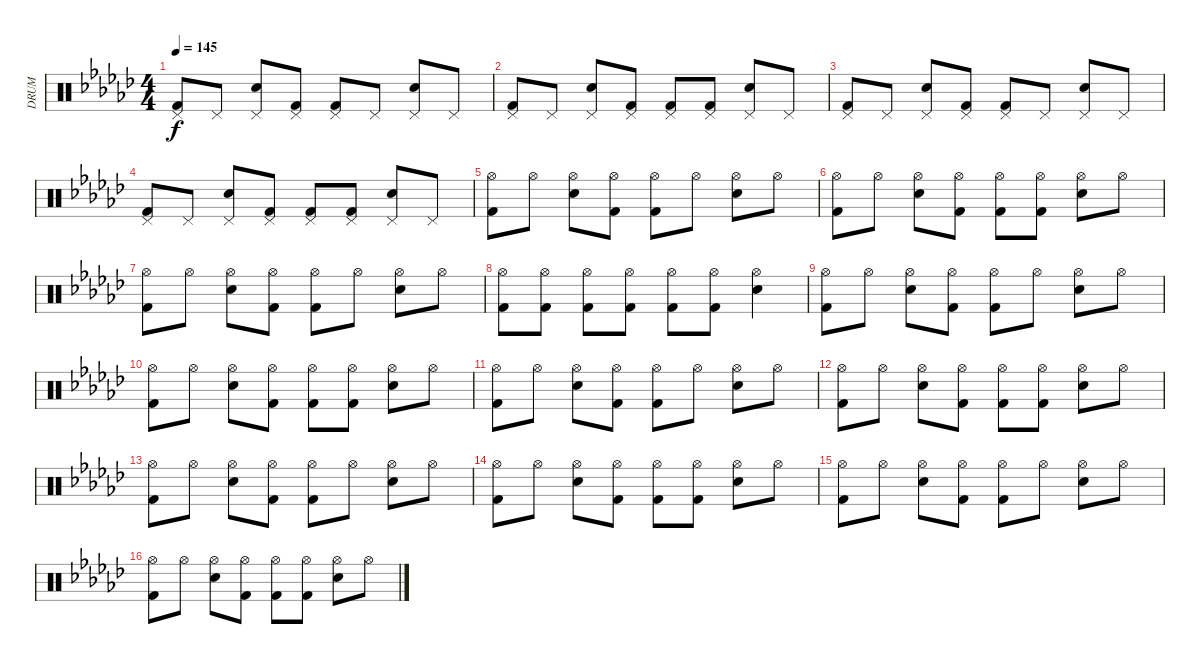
\track ("DRUM" "DRUM") {instrument percussion}
\staff {score}
\articulation defaults
\ts (4 4)
\tempo 145
\clef neutral
\ks ebminor
("Pedal Hi-Hat (hit)" "Kick (hit) 2").8{dy f} "Pedal Hi-Hat (hit)".8 ("Pedal Hi-Hat (hit)" "Electric Snare (hit)").8 ("Pedal Hi-Hat (hit)" "Kick (hit) 2").8 ("Pedal Hi-Hat (hit)" "Kick (hit) 2").8 "Pedal Hi-Hat (hit)".8 ("Pedal Hi-Hat (hit)" "Electric Snare (hit)").8 "Pedal Hi-Hat (hit)".8 |
("Pedal Hi-Hat (hit)" "Kick (hit) 2").8 "Pedal Hi-Hat (hit)".8 ("Pedal Hi-Hat (hit)" "Electric Snare (hit)").8 ("Pedal Hi-Hat (hit)" "Kick (hit) 2").8 ("Pedal Hi-Hat (hit)" "Kick (hit) 2").8 ("Pedal Hi-Hat (hit)" "Kick (hit) 2").8 ("Pedal Hi-Hat (hit)" "Electric Snare (hit)").8 "Pedal Hi-Hat (hit)".8 |
("Pedal Hi-Hat (hit)" "Kick (hit) 2").8 "Pedal Hi-Hat (hit)".8 ("Pedal Hi-Hat (hit)" "Electric Snare (hit)").8 ("Pedal Hi-Hat (hit)" "Kick (hit) 2").8 ("Pedal Hi-Hat (hit)" "Kick (hit) 2").8 "Pedal Hi-Hat (hit)".8 ("Pedal Hi-Hat (hit)" "Electric Snare (hit)").8 "Pedal Hi-Hat (hit)".8 |
("Pedal Hi-Hat (hit)" "Kick (hit) 2").8 "Pedal Hi-Hat (hit)".8 ("Pedal Hi-Hat (hit)" "Electric Snare (hit)").8 ("Pedal Hi-Hat (hit)" "Kick (hit) 2").8 ("Pedal Hi-Hat (hit)" "Kick (hit) 2").8 ("Pedal Hi-Hat (hit)" "Kick (hit) 2").8 ("Pedal Hi-Hat (hit)" "Electric Snare (hit)").8 "Pedal Hi-Hat (hit)".8 |
("Hi-Hat (open)" "Kick (hit) 2").8 "Hi-Hat (open)".8 ("Hi-Hat (open)" "Electric Snare (hit)").8 ("Hi-Hat (open)" "Kick (hit) 2").8 ("Hi-Hat (open)" "Kick (hit) 2").8 "Hi-Hat (open)".8 ("Hi-Hat (open)" "Electric Snare (hit)").8 "Hi-Hat (open)".8 |
("Hi-Hat (open)" "Kick (hit) 2").8 "Hi-Hat (open)".8 ("Hi-Hat (open)" "Electric Snare (hit)").8 ("Hi-Hat (open)" "Kick (hit) 2").8 ("Hi-Hat (open)" "Kick (hit) 2").8 ("Hi-Hat (open)" "Kick (hit) 2").8 ("Hi-Hat (open)" "Electric Snare (hit)").8 "Hi-Hat (open)".8 |
("Hi-Hat (open)" "Kick (hit) 2").8 "Hi-Hat (open)".8 ("Hi-Hat (open)" "Electric Snare (hit)").8 ("Hi-Hat (open)" "Kick (hit) 2").8 ("Hi-Hat (open)" "Kick (hit) 2").8 "Hi-Hat (open)".8 ("Hi-Hat (open)" "Electric Snare (hit)").8 "Hi-Hat (open)".8 |
("Hi-Hat (open)" "Kick (hit) 2").8 ("Hi-Hat (open)" "Kick (hit) 2").8 ("Hi-Hat (open)" "Kick (hit) 2").8 ("Hi-Hat (open)" "Kick (hit) 2").8 ("Hi-Hat (open)" "Kick (hit) 2").8 ("Hi-Hat (open)" "Kick (hit) 2").8 ("Hi-Hat (open)" "Electric Snare (hit)").4 |
("Hi-Hat (open)" "Kick (hit) 2").8 "Hi-Hat (open)".8 ("Hi-Hat (open)" "Electric Snare (hit)").8 ("Hi-Hat (open)" "Kick (hit) 2").8 ("Hi-Hat (open)" "Kick (hit) 2").8 "Hi-Hat (open)".8 ("Hi-Hat (open)" "Electric Snare (hit)").8 "Hi-Hat (open)".8 |
("Hi-Hat (open)" "Kick (hit) 2").8 "Hi-Hat (open)".8 ("Hi-Hat (open)" "Electric Snare (hit)").8 ("Hi-Hat (open)" "Kick (hit) 2").8 ("Hi-Hat (open)" "Kick (hit) 2").8 ("Hi-Hat (open)" "Kick (hit) 2").8 ("Hi-Hat (open)" "Electric Snare (hit)").8 "Hi-Hat (open)".8 |
("Hi-Hat (open)" "Kick (hit) 2").8 "Hi-Hat (open)".8 ("Hi-Hat (open)" "Electric Snare (hit)").8 ("Hi-Hat (open)" "Kick (hit) 2").8 ("Hi-Hat (open)" "Kick (hit) 2").8 "Hi-Hat (open)".8 ("Hi-Hat (open)" "Electric Snare (hit)").8 "Hi-Hat (open)".8 |
("Hi-Hat (open)" "Kick (hit) 2").8 "Hi-Hat (open)".8 ("Hi-Hat (open)" "Electric Snare (hit)").8 ("Hi-Hat (open)" "Kick (hit) 2").8 ("Hi-Hat (open)" "Kick (hit) 2").8 ("Hi-Hat (open)" "Kick (hit) 2").8 ("Hi-Hat (open)" "Electric Snare (hit)").8 "Hi-Hat (open)".8 |
("Hi-Hat (open)" "Kick (hit) 2").8 "Hi-Hat (open)".8 ("Hi-Hat (open)" "Electric Snare (hit)").8 ("Hi-Hat (open)" "Kick (hit) 2").8 ("Hi-Hat (open)" "Kick (hit) 2").8 "Hi-Hat (open)".8 ("Hi-Hat (open)" "Electric Snare (hit)").8 "Hi-Hat (open)".8 |
("Hi-Hat (open)" "Kick (hit) 2").8 "Hi-Hat (open)".8 ("Hi-Hat (open)" "Electric Snare (hit)").8 ("Hi-Hat (open)" "Kick (hit) 2").8 ("Hi-Hat (open)" "Kick (hit) 2").8 ("Hi-Hat (open)" "Kick (hit) 2").8 ("Hi-Hat (open)" "Electric Snare (hit)").8 "Hi-Hat (open)".8 |
("Hi-Hat (open)" "Kick (hit) 2").8 "Hi-Hat (open)".8 ("Hi-Hat (open)" "Electric Snare (hit)").8 ("Hi-Hat (open)" "Kick (hit) 2").8 ("Hi-Hat (open)" "Kick (hit) 2").8 "Hi-Hat (open)".8 ("Hi-Hat (open)" "Electric Snare (hit)").8 "Hi-Hat (open)".8 |
("Hi-Hat (open)" "Kick (hit) 2").8 "Hi-Hat (open)".8 ("Hi-Hat (open)" "Electric Snare (hit)").8 ("Hi-Hat (open)" "Kick (hit) 2").8 ("Hi-Hat (open)" "Kick (hit) 2").8 ("Hi-Hat (open)" "Kick (hit) 2").8 ("Hi-Hat (open)" "Electric Snare (hit)").8 "Hi-Hat (open)".8
